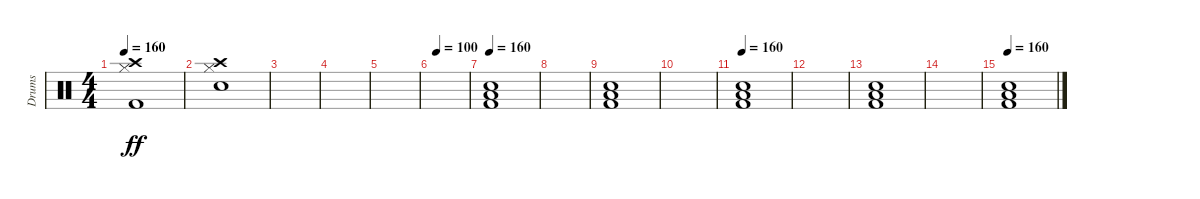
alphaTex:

\track ("Drums" "Drums") {instrument percussion}
\staff {score}
\articulation defaults
\ts (4 4)
\tempo 160
\clef neutral
\ks c
("Hi-Hat (closed)" "Crash high (hit)" "Kick (hit) 2").1{dy ff} |
("Hi-Hat (closed)" "Crash high (hit)" "Snare (hit) 2").1 |
|
|
|
\tempo (100 0.125)
|
\tempo 160
("Kick (hit) 2" "Low Floor Tom (hit)" "Snare (hit) 2").1 |
|
("Kick (hit) 2" "Low Floor Tom (hit)" "Snare (hit) 2").1 |
|
\tempo 160
("Kick (hit) 2" "Low Floor Tom (hit)" "Snare (hit) 2").1 |
|
("Kick (hit) 2" "Low Floor Tom (hit)" "Snare (hit) 2").1 |
|
\tempo 160
("Kick (hit) 2" "Low Floor Tom (hit)" "Snare (hit) 2").1
